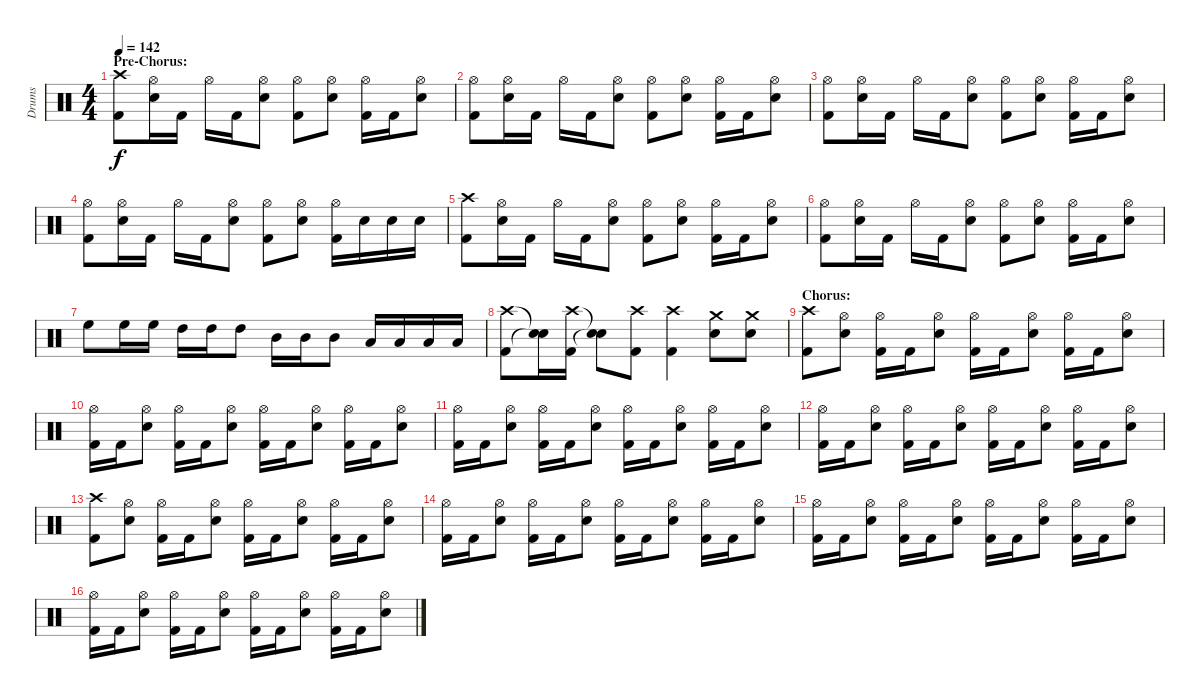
\track ("Drums" "Drums") {instrument percussion}
\staff {score}
\articulation defaults
\ts (4 4)
\section ("" "Pre-Chorus:")
\tempo 142
\clef neutral
\ks c
("Crash high (hit)" "Kick (hit) 2").8{dy f} ("Hi-Hat (open)" "Electric Snare (hit)").16 "Kick (hit) 2".16 "Hi-Hat (open)".16 "Kick (hit) 2".16 ("Hi-Hat (open)" "Electric Snare (hit)").8 ("Hi-Hat (open)" "Kick (hit) 2").8 ("Hi-Hat (open)" "Electric Snare (hit)").8 ("Hi-Hat (open)" "Kick (hit) 2").16 "Kick (hit) 2".16 ("Hi-Hat (open)" "Electric Snare (hit)").8 |
("Hi-Hat (open)" "Kick (hit) 2").8 ("Hi-Hat (open)" "Electric Snare (hit)").16 "Kick (hit) 2".16 "Hi-Hat (open)".16 "Kick (hit) 2".16 ("Hi-Hat (open)" "Electric Snare (hit)").8 ("Hi-Hat (open)" "Kick (hit) 2").8 ("Hi-Hat (open)" "Electric Snare (hit)").8 ("Hi-Hat (open)" "Kick (hit) 2").16 "Kick (hit) 2".16 ("Hi-Hat (open)" "Electric Snare (hit)").8 |
("Hi-Hat (open)" "Kick (hit) 2").8 ("Hi-Hat (open)" "Electric Snare (hit)").16 "Kick (hit) 2".16 "Hi-Hat (open)".16 "Kick (hit) 2".16 ("Hi-Hat (open)" "Electric Snare (hit)").8 ("Hi-Hat (open)" "Kick (hit) 2").8 ("Hi-Hat (open)" "Electric Snare (hit)").8 ("Hi-Hat (open)" "Kick (hit) 2").16 "Kick (hit) 2".16 ("Hi-Hat (open)" "Electric Snare (hit)").8 |
("Hi-Hat (open)" "Kick (hit) 2").8 ("Hi-Hat (open)" "Electric Snare (hit)").16 "Kick (hit) 2".16 "Hi-Hat (open)".16 "Kick (hit) 2".16 ("Hi-Hat (open)" "Electric Snare (hit)").8 ("Hi-Hat (open)" "Kick (hit) 2").8 ("Hi-Hat (open)" "Electric Snare (hit)").8 ("Hi-Hat (open)" "Kick (hit) 2").16 "Electric Snare (hit)".16 "Electric Snare (hit)".16 "Electric Snare (hit)".16 |
("Crash high (hit)" "Kick (hit) 2").8 ("Hi-Hat (open)" "Electric Snare (hit)").16 "Kick (hit) 2".16 "Hi-Hat (open)".16 "Kick (hit) 2".16 ("Hi-Hat (open)" "Electric Snare (hit)").8 ("Hi-Hat (open)" "Kick (hit) 2").8 ("Hi-Hat (open)" "Electric Snare (hit)").8 ("Hi-Hat (open)" "Kick (hit) 2").16 "Kick (hit) 2".16 ("Hi-Hat (open)" "Electric Snare (hit)").8 |
("Hi-Hat (open)" "Kick (hit) 2").8 ("Hi-Hat (open)" "Electric Snare (hit)").16 "Kick (hit) 2".16 "Hi-Hat (open)".16 "Kick (hit) 2".16 ("Hi-Hat (open)" "Electric Snare (hit)").8 ("Hi-Hat (open)" "Kick (hit) 2").8 ("Hi-Hat (open)" "Electric Snare (hit)").8 ("Hi-Hat (open)" "Kick (hit) 2").16 "Kick (hit) 2".16 ("Hi-Hat (open)" "Electric Snare (hit)").8 |
"High Floor Tom (hit)".8 "High Floor Tom (hit)".16 "High Floor Tom (hit)".16 "High Tom (hit)".16 "High Tom (hit)".16 "High Tom (hit)".8 "Mid Tom (hit)".16 "Mid Tom (hit)".16 "Mid Tom (hit)".8 "Low Tom (hit)".16 "Low Tom (hit)".16 "Low Tom (hit)".16 "Low Tom (hit)".16 |
("Crash high (hit)" "Kick (hit) 2").8 ("Snare (hit)"{t} "Snare (hit)"{t}).16 ("Crash high (hit)" "Kick (hit) 2").16 ("Snare (hit)"{t} "Snare (hit)"{t}).8 ("Crash high (hit)" "Kick (hit) 2").8 ("Crash high (hit)" "Kick (hit) 2").4 ("Crash medium (hit)" "Electric Snare (hit)").8 ("Crash medium (hit)" "Electric Snare (hit)").8 |
\section ("" "Chorus:")
("Crash high (hit)" "Kick (hit) 2").8 ("Hi-Hat (open)" "Electric Snare (hit)").8 ("Hi-Hat (open)" "Kick (hit) 2").16 "Kick (hit) 2".16 ("Hi-Hat (open)" "Electric Snare (hit)").8 ("Hi-Hat (open)" "Kick (hit) 2").16 "Kick (hit) 2".16 ("Hi-Hat (open)" "Electric Snare (hit)").8 ("Hi-Hat (open)" "Kick (hit) 2").16 "Kick (hit) 2".16 ("Hi-Hat (open)" "Electric Snare (hit)").8 |
("Hi-Hat (open)" "Kick (hit) 2").16 "Kick (hit) 2".16 ("Hi-Hat (open)" "Electric Snare (hit)").8 ("Hi-Hat (open)" "Kick (hit) 2").16 "Kick (hit) 2".16 ("Hi-Hat (open)" "Electric Snare (hit)").8 ("Hi-Hat (open)" "Kick (hit) 2").16 "Kick (hit) 2".16 ("Hi-Hat (open)" "Electric Snare (hit)").8 ("Hi-Hat (open)" "Kick (hit) 2").16 "Kick (hit) 2".16 ("Hi-Hat (open)" "Electric Snare (hit)").8 |
("Hi-Hat (open)" "Kick (hit) 2").16 "Kick (hit) 2".16 ("Hi-Hat (open)" "Electric Snare (hit)").8 ("Hi-Hat (open)" "Kick (hit) 2").16 "Kick (hit) 2".16 ("Hi-Hat (open)" "Electric Snare (hit)").8 ("Hi-Hat (open)" "Kick (hit) 2").16 "Kick (hit) 2".16 ("Hi-Hat (open)" "Electric Snare (hit)").8 ("Hi-Hat (open)" "Kick (hit) 2").16 "Kick (hit) 2".16 ("Hi-Hat (open)" "Electric Snare (hit)").8 |
("Hi-Hat (open)" "Kick (hit) 2").16 "Kick (hit) 2".16 ("Hi-Hat (open)" "Electric Snare (hit)").8 ("Hi-Hat (open)" "Kick (hit) 2").16 "Kick (hit) 2".16 ("Hi-Hat (open)" "Electric Snare (hit)").8 ("Hi-Hat (open)" "Kick (hit) 2").16 "Kick (hit) 2".16 ("Hi-Hat (open)" "Electric Snare (hit)").8 ("Hi-Hat (open)" "Kick (hit) 2").16 "Kick (hit) 2".16 ("Hi-Hat (open)" "Electric Snare (hit)").8 |
("Crash high (hit)" "Kick (hit) 2").8 ("Hi-Hat (open)" "Electric Snare (hit)").8 ("Hi-Hat (open)" "Kick (hit) 2").16 "Kick (hit) 2".16 ("Hi-Hat (open)" "Electric Snare (hit)").8 ("Hi-Hat (open)" "Kick (hit) 2").16 "Kick (hit) 2".16 ("Hi-Hat (open)" "Electric Snare (hit)").8 ("Hi-Hat (open)" "Kick (hit) 2").16 "Kick (hit) 2".16 ("Hi-Hat (open)" "Electric Snare (hit)").8 |
("Hi-Hat (open)" "Kick (hit) 2").16 "Kick (hit) 2".16 ("Hi-Hat (open)" "Electric Snare (hit)").8 ("Hi-Hat (open)" "Kick (hit) 2").16 "Kick (hit) 2".16 ("Hi-Hat (open)" "Electric Snare (hit)").8 ("Hi-Hat (open)" "Kick (hit) 2").16 "Kick (hit) 2".16 ("Hi-Hat (open)" "Electric Snare (hit)").8 ("Hi-Hat (open)" "Kick (hit) 2").16 "Kick (hit) 2".16 ("Hi-Hat (open)" "Electric Snare (hit)").8 |
("Hi-Hat (open)" "Kick (hit) 2").16 "Kick (hit) 2".16 ("Hi-Hat (open)" "Electric Snare (hit)").8 ("Hi-Hat (open)" "Kick (hit) 2").16 "Kick (hit) 2".16 ("Hi-Hat (open)" "Electric Snare (hit)").8 ("Hi-Hat (open)" "Kick (hit) 2").16 "Kick (hit) 2".16 ("Hi-Hat (open)" "Electric Snare (hit)").8 ("Hi-Hat (open)" "Kick (hit) 2").16 "Kick (hit) 2".16 ("Hi-Hat (open)" "Electric Snare (hit)").8 |
("Hi-Hat (open)" "Kick (hit) 2").16 "Kick (hit) 2".16 ("Hi-Hat (open)" "Electric Snare (hit)").8 ("Hi-Hat (open)" "Kick (hit) 2").16 "Kick (hit) 2".16 ("Hi-Hat (open)" "Electric Snare (hit)").8 ("Hi-Hat (open)" "Kick (hit) 2").16 "Kick (hit) 2".16 ("Hi-Hat (open)" "Electric Snare (hit)").8 ("Hi-Hat (open)" "Kick (hit) 2").16 "Kick (hit) 2".16 ("Hi-Hat (open)" "Electric Snare (hit)").8
